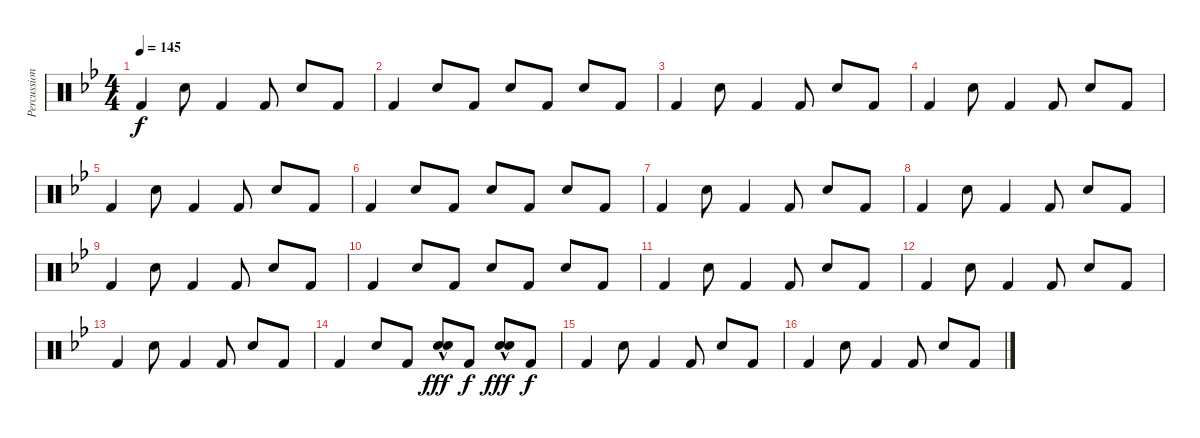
\track ("Percussion" "Percussion") {instrument percussion}
\staff {score}
\articulation defaults
\ts (4 4)
\tempo 145
\clef neutral
\ks gminor "Kick (hit) 2".4{dy f} "Electric Snare (hit)".8 "Kick (hit) 2".4 "Kick (hit) 2".8 "Electric Snare (hit)".8 "Kick (hit) 2".8
|
"Kick (hit) 2".4 "Electric Snare (hit)".8 "Kick (hit) 2".8 "Electric Snare (hit)".8 "Kick (hit) 2".8 "Electric Snare (hit)".8 "Kick (hit) 2".8 |
"Kick (hit) 2".4 "Electric Snare (hit)".8 "Kick (hit) 2".4 "Kick (hit) 2".8 "Electric Snare (hit)".8 "Kick (hit) 2".8 |
"Kick (hit) 2".4 "Electric Snare (hit)".8 "Kick (hit) 2".4 "Kick (hit) 2".8 "Electric Snare (hit)".8 "Kick (hit) 2".8 |
"Kick (hit) 2".4 "Electric Snare (hit)".8 "Kick (hit) 2".4 "Kick (hit) 2".8 "Electric Snare (hit)".8 "Kick (hit) 2".8 |
"Kick (hit) 2".4 "Electric Snare (hit)".8 "Kick (hit) 2".8 "Electric Snare (hit)".8 "Kick (hit) 2".8 "Electric Snare (hit)".8 "Kick (hit) 2".8 |
"Kick (hit) 2".4 "Electric Snare (hit)".8 "Kick (hit) 2".4 "Kick (hit) 2".8 "Electric Snare (hit)".8 "Kick (hit) 2".8 |
"Kick (hit) 2".4 "Electric Snare (hit)".8 "Kick (hit) 2".4 "Kick (hit) 2".8 "Electric Snare (hit)".8 "Kick (hit) 2".8 |
"Kick (hit) 2".4 "Electric Snare (hit)".8 "Kick (hit) 2".4 "Kick (hit) 2".8 "Electric Snare (hit)".8 "Kick (hit) 2".8 |
"Kick (hit) 2".4 "Electric Snare (hit)".8 "Kick (hit) 2".8 "Electric Snare (hit)".8 "Kick (hit) 2".8 "Electric Snare (hit)".8 "Kick (hit) 2".8 |
"Kick (hit) 2".4 "Electric Snare (hit)".8 "Kick (hit) 2".4 "Kick (hit) 2".8 "Electric Snare (hit)".8 "Kick (hit) 2".8 |
"Kick (hit) 2".4 "Electric Snare (hit)".8 "Kick (hit) 2".4 "Kick (hit) 2".8 "Electric Snare (hit)".8 "Kick (hit) 2".8 |
"Kick (hit) 2".4 "Electric Snare (hit)".8 "Kick (hit) 2".4 "Kick (hit) 2".8 "Electric Snare (hit)".8 "Kick (hit) 2".8 |
"Kick (hit) 2".4 "Electric Snare (hit)".8 "Kick (hit) 2".8 ("Hand Clap (hit)"{hac} "Electric Snare (hit)").8{dy fff} "Kick (hit) 2".8{dy f} ("Hand Clap (hit)"{hac} "Electric Snare (hit)").8{dy fff} "Kick (hit) 2".8{dy f} |
"Kick (hit) 2".4 "Electric Snare (hit)".8 "Kick (hit) 2".4 "Kick (hit) 2".8 "Electric Snare (hit)".8 "Kick (hit) 2".8 |
"Kick (hit) 2".4 "Electric Snare (hit)".8 "Kick (hit) 2".4 "Kick (hit) 2".8 "Electric Snare (hit)".8 "Kick (hit) 2".8
